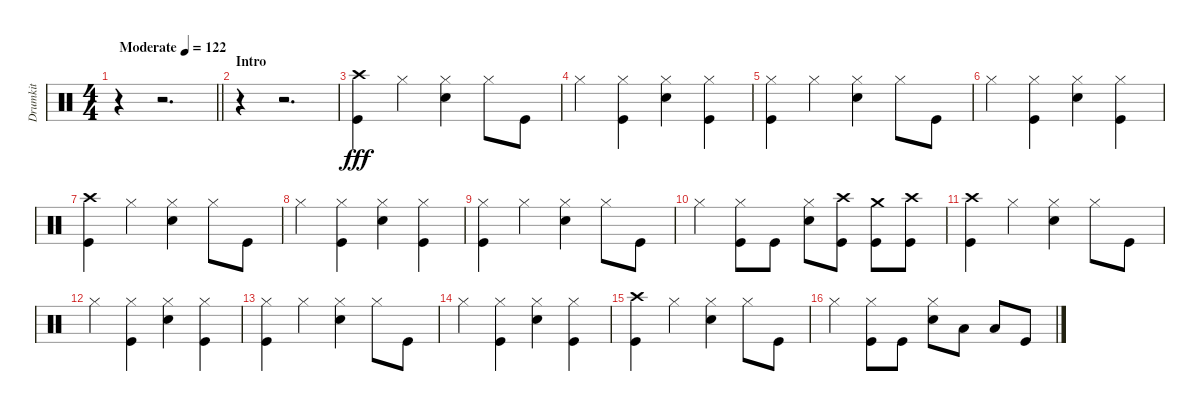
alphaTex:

\track ("Drumkit" "Drumkit") {mute instrument percussion}
\staff {score}
\articulation defaults
\ts (4 4)
\tempo (122 "Moderate")
\clef neutral
\barLineRight lightlight
\ks c
r.4{dy fff} r.2{d} |
\section ("" "Intro")
r.4 r.2{d} |
("Kick (hit)" "Crash high (hit)").4 "Hi-Hat (closed)".4 ("Hi-Hat (closed)" "Snare (hit) 2").4 "Hi-Hat (closed)".8 "Kick (hit)".8 |
"Hi-Hat (closed)".4 ("Hi-Hat (closed)" "Kick (hit)").4 ("Hi-Hat (closed)" "Snare (hit) 2").4 ("Hi-Hat (closed)" "Kick (hit)").4 |
("Kick (hit)" "Hi-Hat (closed)").4 "Hi-Hat (closed)".4 ("Hi-Hat (closed)" "Snare (hit) 2").4 "Hi-Hat (closed)".8 "Kick (hit)".8 |
"Hi-Hat (closed)".4 ("Hi-Hat (closed)" "Kick (hit)").4 ("Hi-Hat (closed)" "Snare (hit) 2").4 ("Hi-Hat (closed)" "Kick (hit)").4 |
("Kick (hit)" "Crash high (hit)").4 "Hi-Hat (closed)".4 ("Hi-Hat (closed)" "Snare (hit) 2").4 "Hi-Hat (closed)".8 "Kick (hit)".8 |
"Hi-Hat (closed)".4 ("Hi-Hat (closed)" "Kick (hit)").4 ("Hi-Hat (closed)" "Snare (hit) 2").4 ("Hi-Hat (closed)" "Kick (hit)").4 |
("Kick (hit)" "Hi-Hat (closed)").4 "Hi-Hat (closed)".4 ("Hi-Hat (closed)" "Snare (hit) 2").4 "Hi-Hat (closed)".8 "Kick (hit)".8 |
"Hi-Hat (closed)".4 ("Hi-Hat (closed)" "Kick (hit)").8 "Kick (hit)".8 ("Hi-Hat (closed)" "Snare (hit) 2").8 ("Kick (hit)" "Crash high (hit)").8 ("Kick (hit)" "Crash medium (hit)").8 ("Kick (hit)" "Crash high (hit)").8 |
("Kick (hit)" "Crash high (hit)").4 "Hi-Hat (closed)".4 ("Hi-Hat (closed)" "Snare (hit) 2").4 "Hi-Hat (closed)".8 "Kick (hit)".8 |
"Hi-Hat (closed)".4 ("Hi-Hat (closed)" "Kick (hit)").4 ("Hi-Hat (closed)" "Snare (hit) 2").4 ("Hi-Hat (closed)" "Kick (hit)").4 |
("Kick (hit)" "Hi-Hat (closed)").4 "Hi-Hat (closed)".4 ("Hi-Hat (closed)" "Snare (hit) 2").4 "Hi-Hat (closed)".8 "Kick (hit)".8 |
"Hi-Hat (closed)".4 ("Hi-Hat (closed)" "Kick (hit)").4 ("Hi-Hat (closed)" "Snare (hit) 2").4 ("Hi-Hat (closed)" "Kick (hit)").4 |
("Kick (hit)" "Crash high (hit)").4 "Hi-Hat (closed)".4 ("Hi-Hat (closed)" "Snare (hit) 2").4 "Hi-Hat (closed)".8 "Kick (hit)".8 |
"Hi-Hat (closed)".4 ("Hi-Hat (closed)" "Kick (hit)").8 "Kick (hit)".8 ("Hi-Hat (closed)" "Snare (hit) 2").8 "Low Tom (hit)".8 "Low Tom (hit)".8 "Kick (hit)".8
